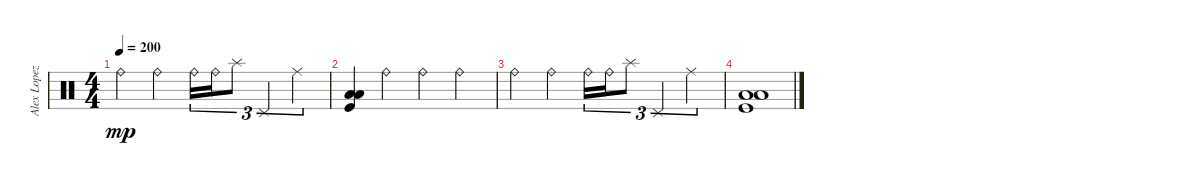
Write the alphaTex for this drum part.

\track ("Alex Lopez" "Alex Lopez") {instrument percussion}
\staff {score}
\articulation defaults
\ts (4 4)
\tempo 200
\clef neutral
\ks c "Ride (bell)".4{dy mp} "Ride (bell)".4 "Ride (bell)".16{tu (3 2)} "Ride (bell)".16{tu (3 2)} "Splash (hit)".8{tu (3 2)} "Pedal Hi-Hat (hit)".4{tu (3 2)} "Ride (middle)".4{tu (3 2)}
|
("Low Tom (hit)" "Low Floor Tom (hit)" "Kick (hit)").4 "Ride (bell)".4 "Ride (bell)".4 "Ride (bell)".4 |
"Ride (bell)".4 "Ride (bell)".4 "Ride (bell)".16{tu (3 2)} "Ride (bell)".16{tu (3 2)} "Splash (hit)".8{tu (3 2)} "Pedal Hi-Hat (hit)".4{tu (3 2)} "Ride (middle)".4{tu (3 2)} |
("Kick (hit)" "Low Floor Tom (hit)" "Low Tom (hit)").1
